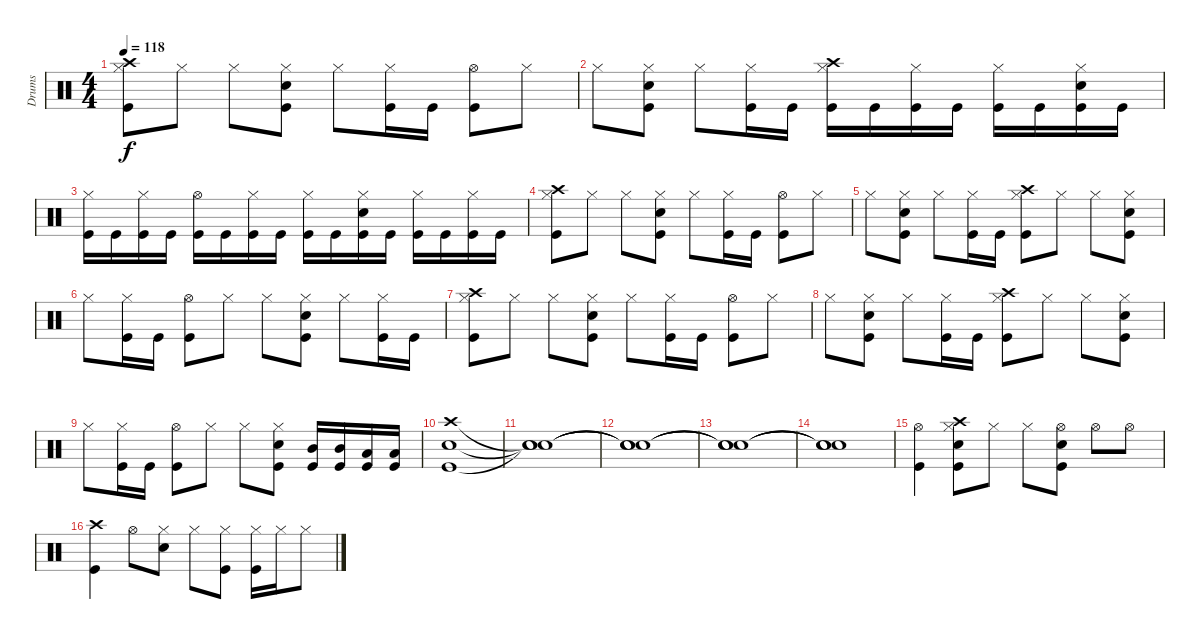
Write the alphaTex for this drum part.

\track ("Drums" "Drums") {instrument percussion}
\staff {score}
\articulation defaults
\ts (4 4)
\tempo 118
\clef neutral
\ks c
("Kick (hit)" "Hi-Hat (closed)" "Crash high (hit)").8{dy f} "Hi-Hat (closed)".8 "Hi-Hat (closed)".8 ("Kick (hit)" "Snare (hit) 2" "Hi-Hat (closed)").8 "Hi-Hat (closed)".8 ("Kick (hit)" "Hi-Hat (closed)").16 "Kick (hit)".16 ("Kick (hit)" "Hi-Hat (open)").8 "Hi-Hat (closed)".8 |
"Hi-Hat (closed)".8 ("Kick (hit)" "Snare (hit) 2" "Hi-Hat (closed)").8 "Hi-Hat (closed)".8 ("Kick (hit)" "Hi-Hat (closed)").16 "Kick (hit)".16 ("Kick (hit)" "Hi-Hat (closed)" "Crash high (hit)").16 "Kick (hit)".16 ("Kick (hit)" "Hi-Hat (closed)").16 "Kick (hit)".16 ("Kick (hit)" "Hi-Hat (closed)").16 "Kick (hit)".16 ("Kick (hit)" "Snare (hit) 2" "Hi-Hat (closed)").16 "Kick (hit)".16 |
("Kick (hit)" "Hi-Hat (closed)").16 "Kick (hit)".16 ("Kick (hit)" "Hi-Hat (closed)").16 "Kick (hit)".16 ("Kick (hit)" "Hi-Hat (open)").16 "Kick (hit)".16 ("Kick (hit)" "Hi-Hat (closed)").16 "Kick (hit)".16 ("Kick (hit)" "Hi-Hat (closed)").16 "Kick (hit)".16 ("Kick (hit)" "Snare (hit) 2" "Hi-Hat (closed)").16 "Kick (hit)".16 ("Kick (hit)" "Hi-Hat (closed)").16 "Kick (hit)".16 ("Kick (hit)" "Hi-Hat (closed)").16 "Kick (hit)".16 |
("Kick (hit)" "Hi-Hat (closed)" "Crash high (hit)").8 "Hi-Hat (closed)".8 "Hi-Hat (closed)".8 ("Kick (hit)" "Snare (hit) 2" "Hi-Hat (closed)").8 "Hi-Hat (closed)".8 ("Kick (hit)" "Hi-Hat (closed)").16 "Kick (hit)".16 ("Kick (hit)" "Hi-Hat (open)").8 "Hi-Hat (closed)".8 |
"Hi-Hat (closed)".8 ("Kick (hit)" "Snare (hit) 2" "Hi-Hat (closed)").8 "Hi-Hat (closed)".8 ("Kick (hit)" "Hi-Hat (closed)").16 "Kick (hit)".16 ("Kick (hit)" "Hi-Hat (closed)" "Crash high (hit)").8 "Hi-Hat (closed)".8 "Hi-Hat (closed)".8 ("Kick (hit)" "Snare (hit) 2" "Hi-Hat (closed)").8 |
"Hi-Hat (closed)".8 ("Kick (hit)" "Hi-Hat (closed)").16 "Kick (hit)".16 ("Kick (hit)" "Hi-Hat (open)").8 "Hi-Hat (closed)".8 "Hi-Hat (closed)".8 ("Kick (hit)" "Snare (hit) 2" "Hi-Hat (closed)").8 "Hi-Hat (closed)".8 ("Kick (hit)" "Hi-Hat (closed)").16 "Kick (hit)".16 |
("Kick (hit)" "Hi-Hat (closed)" "Crash high (hit)").8 "Hi-Hat (closed)".8 "Hi-Hat (closed)".8 ("Kick (hit)" "Snare (hit) 2" "Hi-Hat (closed)").8 "Hi-Hat (closed)".8 ("Kick (hit)" "Hi-Hat (closed)").16 "Kick (hit)".16 ("Kick (hit)" "Hi-Hat (open)").8 "Hi-Hat (closed)".8 |
"Hi-Hat (closed)".8 ("Kick (hit)" "Snare (hit) 2" "Hi-Hat (closed)").8 "Hi-Hat (closed)".8 ("Kick (hit)" "Hi-Hat (closed)").16 "Kick (hit)".16 ("Kick (hit)" "Hi-Hat (closed)" "Crash high (hit)").8 "Hi-Hat (closed)".8 "Hi-Hat (closed)".8 ("Kick (hit)" "Snare (hit) 2" "Hi-Hat (closed)").8 |
"Hi-Hat (closed)".8 ("Kick (hit)" "Hi-Hat (closed)").16 "Kick (hit)".16 ("Kick (hit)" "Hi-Hat (open)").8 "Hi-Hat (closed)".8 "Hi-Hat (closed)".8 ("Kick (hit)" "Snare (hit) 2" "Hi-Hat (closed)").8 ("Kick (hit)" "Mid Tom (hit)").16 ("Kick (hit)" "Mid Tom (hit)").16 ("Kick (hit)" "Low Tom (hit)").16 ("Kick (hit)" "Low Tom (hit)").16 |
("Kick (hit)" "Snare (hit) 2" "Crash high (hit)").1 |
("Snare (hit)"{t} "Snare (hit)"{t} "Snare (hit)"{t}).1 |
("Snare (hit)"{t} "Snare (hit)"{t} "Snare (hit)"{t}).1 |
("Snare (hit)"{t} "Snare (hit)"{t} "Snare (hit)"{t}).1 |
("Snare (hit)"{t} "Snare (hit)"{t} "Snare (hit)"{t}).1 |
("Kick (hit)" "Hi-Hat (open)").4 ("Kick (hit)" "Snare (hit) 2" "Hi-Hat (closed)" "Crash high (hit)").8 "Hi-Hat (closed)".8 "Hi-Hat (closed)".8 ("Kick (hit)" "Snare (hit) 2" "Hi-Hat (open)").8 "Hi-Hat (open)".8 "Hi-Hat (open)".8 |
("Kick (hit)" "Crash high (hit)").4 "Hi-Hat (open)".8 ("Snare (hit) 2" "Hi-Hat (closed)").8 "Hi-Hat (closed)".8 ("Kick (hit)" "Hi-Hat (closed)").8 ("Kick (hit)" "Hi-Hat (closed)").16 "Hi-Hat (closed)".16 "Hi-Hat (closed)".8
